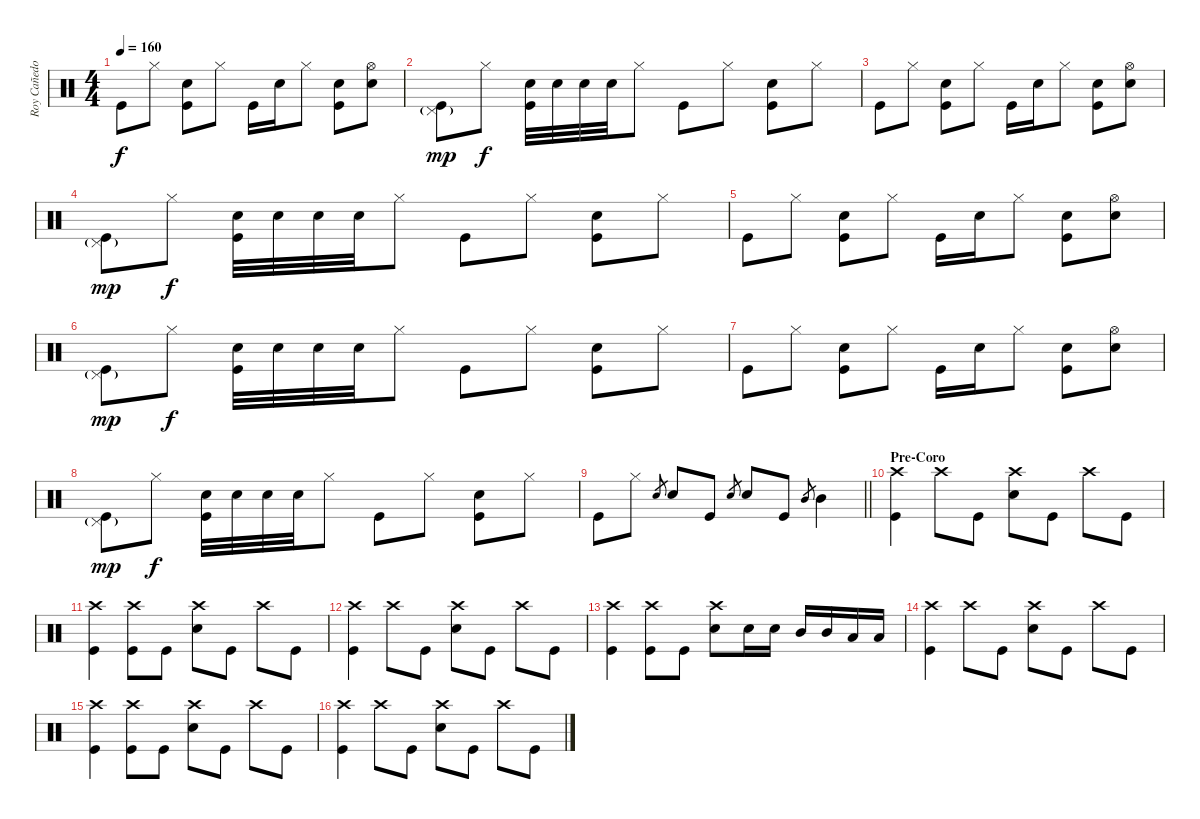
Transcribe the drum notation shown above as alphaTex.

\track ("Roy Cañedo" "Roy Cañedo") {instrument percussion}
\staff {score}
\articulation defaults
\ts (4 4)
\tempo 160
\clef neutral
\ks c "Kick (hit)".8{dy f} "Hi-Hat (closed)".8
("Snare (hit) 2" "Kick (hit)").8 "Hi-Hat (closed)".8 "Kick (hit)".16 "Snare (hit) 2".16 "Hi-Hat (closed)".8 ("Snare (hit) 2" "Kick (hit)").8 ("Hi-Hat (open)" "Snare (hit) 2").8 |
("Pedal Hi-Hat (hit)"{g} "Kick (hit)").8{dy mp} "Hi-Hat (closed)".8{dy f} ("Snare (hit) 2" "Kick (hit)").32 "Snare (hit) 2".32 "Snare (hit) 2".32 "Snare (hit) 2".32 "Hi-Hat (closed)".8 "Kick (hit)".8 "Hi-Hat (closed)".8 ("Snare (hit) 2" "Kick (hit)").8 "Hi-Hat (closed)".8 |
"Kick (hit)".8 "Hi-Hat (closed)".8 ("Snare (hit) 2" "Kick (hit)").8 "Hi-Hat (closed)".8 "Kick (hit)".16 "Snare (hit) 2".16 "Hi-Hat (closed)".8 ("Snare (hit) 2" "Kick (hit)").8 ("Hi-Hat (open)" "Snare (hit) 2").8 |
("Pedal Hi-Hat (hit)"{g} "Kick (hit)").8{dy mp} "Hi-Hat (closed)".8{dy f} ("Snare (hit) 2" "Kick (hit)").32 "Snare (hit) 2".32 "Snare (hit) 2".32 "Snare (hit) 2".32 "Hi-Hat (closed)".8 "Kick (hit)".8 "Hi-Hat (closed)".8 ("Snare (hit) 2" "Kick (hit)").8 "Hi-Hat (closed)".8 |
"Kick (hit)".8 "Hi-Hat (closed)".8 ("Snare (hit) 2" "Kick (hit)").8 "Hi-Hat (closed)".8 "Kick (hit)".16 "Snare (hit) 2".16 "Hi-Hat (closed)".8 ("Snare (hit) 2" "Kick (hit)").8 ("Hi-Hat (open)" "Snare (hit) 2").8 |
("Pedal Hi-Hat (hit)"{g} "Kick (hit)").8{dy mp} "Hi-Hat (closed)".8{dy f} ("Snare (hit) 2" "Kick (hit)").32 "Snare (hit) 2".32 "Snare (hit) 2".32 "Snare (hit) 2".32 "Hi-Hat (closed)".8 "Kick (hit)".8 "Hi-Hat (closed)".8 ("Snare (hit) 2" "Kick (hit)").8 "Hi-Hat (closed)".8 |
"Kick (hit)".8 "Hi-Hat (closed)".8 ("Snare (hit) 2" "Kick (hit)").8 "Hi-Hat (closed)".8 "Kick (hit)".16 "Snare (hit) 2".16 "Hi-Hat (closed)".8 ("Snare (hit) 2" "Kick (hit)").8 ("Hi-Hat (open)" "Snare (hit) 2").8 |
("Pedal Hi-Hat (hit)"{g} "Kick (hit)").8{dy mp} "Hi-Hat (closed)".8{dy f} ("Snare (hit) 2" "Kick (hit)").32 "Snare (hit) 2".32 "Snare (hit) 2".32 "Snare (hit) 2".32 "Hi-Hat (closed)".8 "Kick (hit)".8 "Hi-Hat (closed)".8 ("Snare (hit) 2" "Kick (hit)").8 "Hi-Hat (closed)".8 |
\barLineRight lightlight "Kick (hit)".8 "Hi-Hat (closed)".8 "Snare (hit) 2".8{gr} "Snare (hit) 2".8 "Kick (hit)".8 "Snare (hit) 2".8{gr} "Snare (hit) 2".8 "Kick (hit)".8 "Mid Tom (hit)".8{gr} "Mid Tom (hit)".4
|
\section ("" "Pre-Coro")
("Crash high (hit)" "Kick (hit)").4 "Crash high (hit)".8 "Kick (hit)".8 ("Crash high (hit)" "Snare (hit) 2").8 "Kick (hit)".8 "Crash high (hit)".8 "Kick (hit)".8 |
("Crash high (hit)" "Kick (hit)").4 ("Crash high (hit)" "Kick (hit)").8 "Kick (hit)".8 ("Crash high (hit)" "Snare (hit) 2").8 "Kick (hit)".8 "Crash high (hit)".8 "Kick (hit)".8 |
("Crash high (hit)" "Kick (hit)").4 "Crash high (hit)".8 "Kick (hit)".8 ("Crash high (hit)" "Snare (hit) 2").8 "Kick (hit)".8 "Crash high (hit)".8 "Kick (hit)".8 |
("Crash high (hit)" "Kick (hit)").4 ("Crash high (hit)" "Kick (hit)").8 "Kick (hit)".8 ("Crash high (hit)" "Snare (hit) 2").8 "Snare (hit) 2".16 "Snare (hit) 2".16 "Mid Tom (hit)".16 "Mid Tom (hit)".16 "Low Tom (hit)".16 "Low Tom (hit)".16 |
("Crash high (hit)" "Kick (hit)").4 "Crash high (hit)".8 "Kick (hit)".8 ("Crash high (hit)" "Snare (hit) 2").8 "Kick (hit)".8 "Crash high (hit)".8 "Kick (hit)".8 |
("Crash high (hit)" "Kick (hit)").4 ("Crash high (hit)" "Kick (hit)").8 "Kick (hit)".8 ("Crash high (hit)" "Snare (hit) 2").8 "Kick (hit)".8 "Crash high (hit)".8 "Kick (hit)".8 |
("Crash high (hit)" "Kick (hit)").4 "Crash high (hit)".8 "Kick (hit)".8 ("Crash high (hit)" "Snare (hit) 2").8 "Kick (hit)".8 "Crash high (hit)".8 "Kick (hit)".8
